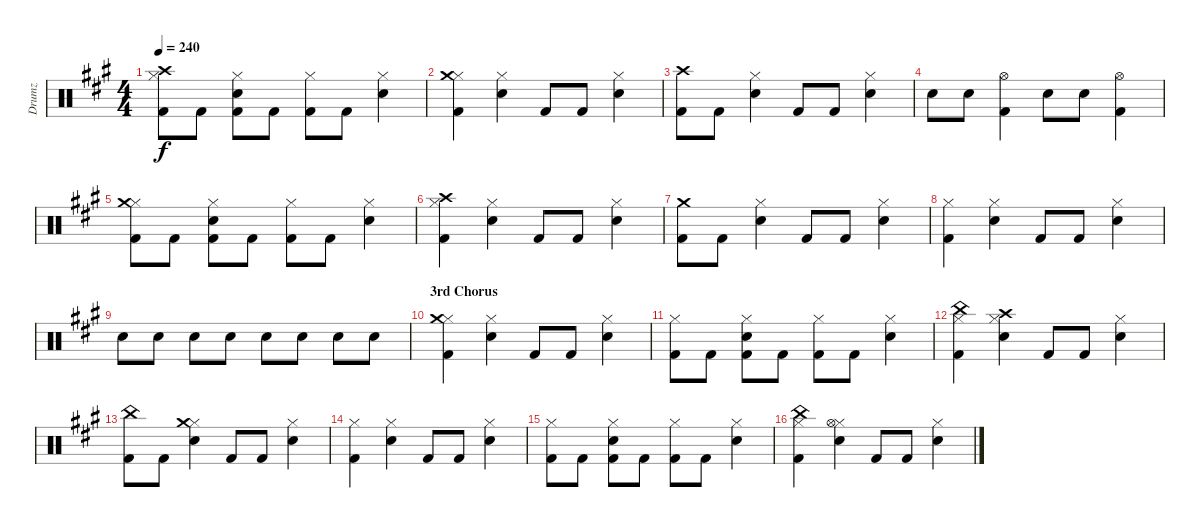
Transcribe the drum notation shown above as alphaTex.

\track ("Drumz" "Drumz") {instrument percussion}
\staff {score}
\articulation defaults
\ts (4 4)
\tempo 240
\clef neutral
\ks a
("Hi-Hat (closed)" "Crash high (hit)" "Kick (hit) 2").8{dy f} "Kick (hit) 2".8 ("Hi-Hat (closed)" "Electric Snare (hit)" "Kick (hit) 2").8 "Kick (hit) 2".8 ("Hi-Hat (closed)" "Kick (hit) 2").8 "Kick (hit) 2".8 ("Hi-Hat (closed)" "Electric Snare (hit)").4 |
("Hi-Hat (closed)" "Crash medium (hit)" "Kick (hit) 2").4 ("Hi-Hat (closed)" "Electric Snare (hit)").4 "Kick (hit) 2".8 "Kick (hit) 2".8 ("Electric Snare (hit)" "Hi-Hat (closed)").4 |
("Kick (hit) 2" "Crash high (hit)").8 "Kick (hit) 2".8 ("Hi-Hat (closed)" "Electric Snare (hit)").4 "Kick (hit) 2".8 "Kick (hit) 2".8 ("Electric Snare (hit)" "Hi-Hat (closed)").4 |
"Electric Snare (hit)".8 "Electric Snare (hit)".8 ("Hi-Hat (open)" "Kick (hit) 2").4 "Electric Snare (hit)".8 "Electric Snare (hit)".8 ("Hi-Hat (open)" "Kick (hit) 2").4 |
("Hi-Hat (closed)" "Crash medium (hit)" "Kick (hit) 2").8 "Kick (hit) 2".8 ("Hi-Hat (closed)" "Electric Snare (hit)" "Kick (hit) 2").8 "Kick (hit) 2".8 ("Hi-Hat (closed)" "Kick (hit) 2").8 "Kick (hit) 2".8 ("Hi-Hat (closed)" "Electric Snare (hit)").4 |
("Hi-Hat (closed)" "Crash high (hit)" "Kick (hit) 2").4 ("Hi-Hat (closed)" "Electric Snare (hit)").4 "Kick (hit) 2".8 "Kick (hit) 2".8 ("Electric Snare (hit)" "Hi-Hat (closed)").4 |
("Kick (hit) 2" "Crash medium (hit)").8 "Kick (hit) 2".8 ("Hi-Hat (closed)" "Electric Snare (hit)").4 "Kick (hit) 2".8 "Kick (hit) 2".8 ("Electric Snare (hit)" "Hi-Hat (closed)").4 |
("Hi-Hat (closed)" "Kick (hit) 2").4 ("Hi-Hat (closed)" "Electric Snare (hit)").4 "Kick (hit) 2".8 "Kick (hit) 2".8 ("Electric Snare (hit)" "Hi-Hat (closed)").4 |
"Electric Snare (hit)".8 "Electric Snare (hit)".8 "Electric Snare (hit)".8 "Electric Snare (hit)".8 "Electric Snare (hit)".8 "Electric Snare (hit)".8 "Electric Snare (hit)".8 "Electric Snare (hit)".8 |
\section ("" "3rd Chorus")
("Hi-Hat (closed)" "Crash medium (hit)" "Kick (hit) 2").4 ("Hi-Hat (closed)" "Electric Snare (hit)").4 "Kick (hit) 2".8 "Kick (hit) 2".8 ("Electric Snare (hit)" "Hi-Hat (closed)").4 |
("Hi-Hat (closed)" "Kick (hit) 2").8 "Kick (hit) 2".8 ("Hi-Hat (closed)" "Electric Snare (hit)" "Kick (hit) 2").8 "Kick (hit) 2".8 ("Hi-Hat (closed)" "Kick (hit) 2").8 "Kick (hit) 2".8 ("Hi-Hat (closed)" "Electric Snare (hit)").4 |
("Hi-Hat (closed)" "China (hit)" "Kick (hit) 2").4 ("Hi-Hat (closed)" "Crash high (hit)" "Electric Snare (hit)").4 "Kick (hit) 2".8 "Kick (hit) 2".8 ("Electric Snare (hit)" "Hi-Hat (closed)").4 |
("Kick (hit) 2" "China (hit)").8 "Kick (hit) 2".8 ("Hi-Hat (closed)" "Electric Snare (hit)" "Crash medium (hit)").4 "Kick (hit) 2".8 "Kick (hit) 2".8 ("Electric Snare (hit)" "Hi-Hat (closed)").4 |
("Hi-Hat (closed)" "Kick (hit) 2").4 ("Hi-Hat (closed)" "Electric Snare (hit)").4 "Kick (hit) 2".8 "Kick (hit) 2".8 ("Electric Snare (hit)" "Hi-Hat (closed)").4 |
("Hi-Hat (closed)" "Kick (hit) 2").8 "Kick (hit) 2".8 ("Hi-Hat (closed)" "Electric Snare (hit)" "Kick (hit) 2").8 "Kick (hit) 2".8 ("Hi-Hat (closed)" "Kick (hit) 2").8 "Kick (hit) 2".8 ("Hi-Hat (closed)" "Electric Snare (hit)").4 |
("Hi-Hat (closed)" "China (hit)" "Kick (hit) 2").4 ("Hi-Hat (closed)" "Hi-Hat (open)" "Electric Snare (hit)").4 "Kick (hit) 2".8 "Kick (hit) 2".8 ("Electric Snare (hit)" "Hi-Hat (closed)").4
